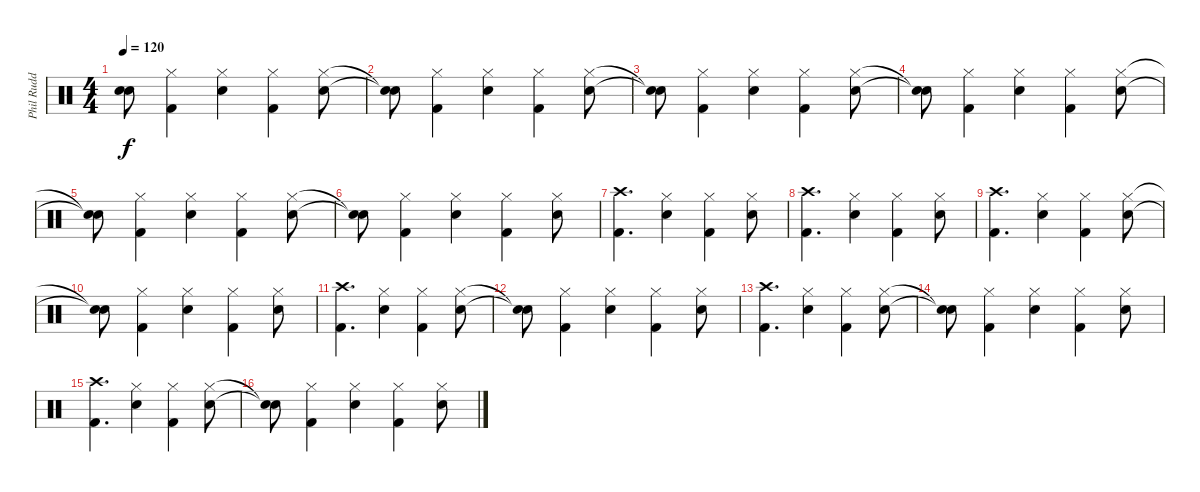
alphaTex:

\track ("Phil Rudd - Drums" "Phil Rudd ") {instrument percussion}
\staff {score}
\articulation defaults
\ts (4 4)
\tempo 120
\clef neutral
\ks c
("Snare (hit)"{t} "Snare (hit)"{t}).8{dy f} ("Hi-Hat (closed)" "Kick (hit) 2").4 ("Hi-Hat (closed)" "Snare (hit) 2").4 ("Hi-Hat (closed)" "Kick (hit) 2").4 ("Hi-Hat (closed)" "Snare (hit) 2").8 |
("Snare (hit)"{t} "Snare (hit)"{t}).8 ("Hi-Hat (closed)" "Kick (hit) 2").4 ("Hi-Hat (closed)" "Snare (hit) 2").4 ("Hi-Hat (closed)" "Kick (hit) 2").4 ("Hi-Hat (closed)" "Snare (hit) 2").8 |
("Snare (hit)"{t} "Snare (hit)"{t}).8 ("Hi-Hat (closed)" "Kick (hit) 2").4 ("Hi-Hat (closed)" "Snare (hit) 2").4 ("Hi-Hat (closed)" "Kick (hit) 2").4 ("Hi-Hat (closed)" "Snare (hit) 2").8 |
("Snare (hit)"{t} "Snare (hit)"{t}).8 ("Hi-Hat (closed)" "Kick (hit) 2").4 ("Hi-Hat (closed)" "Snare (hit) 2").4 ("Hi-Hat (closed)" "Kick (hit) 2").4 ("Hi-Hat (closed)" "Snare (hit) 2").8 |
("Snare (hit)"{t} "Snare (hit)"{t}).8 ("Hi-Hat (closed)" "Kick (hit) 2").4 ("Hi-Hat (closed)" "Snare (hit) 2").4 ("Hi-Hat (closed)" "Kick (hit) 2").4 ("Hi-Hat (closed)" "Snare (hit) 2").8 |
("Snare (hit)"{t} "Snare (hit)"{t}).8 ("Hi-Hat (closed)" "Kick (hit) 2").4 ("Hi-Hat (closed)" "Snare (hit) 2").4 ("Hi-Hat (closed)" "Kick (hit) 2").4 ("Hi-Hat (closed)" "Snare (hit) 2").8 |
("Crash high (hit)" "Kick (hit) 2").4{d} ("Hi-Hat (closed)" "Snare (hit) 2").4 ("Hi-Hat (closed)" "Kick (hit) 2").4 ("Hi-Hat (closed)" "Snare (hit) 2").8 |
("Crash high (hit)" "Kick (hit) 2").4{d} ("Hi-Hat (closed)" "Snare (hit) 2").4 ("Hi-Hat (closed)" "Kick (hit) 2").4 ("Hi-Hat (closed)" "Snare (hit) 2").8 |
("Crash high (hit)" "Kick (hit) 2").4{d} ("Hi-Hat (closed)" "Snare (hit) 2").4 ("Hi-Hat (closed)" "Kick (hit) 2").4 ("Hi-Hat (closed)" "Snare (hit) 2").8 |
("Snare (hit)"{t} "Snare (hit)"{t}).8 ("Hi-Hat (closed)" "Kick (hit) 2").4 ("Hi-Hat (closed)" "Snare (hit) 2").4 ("Hi-Hat (closed)" "Kick (hit) 2").4 ("Hi-Hat (closed)" "Snare (hit) 2").8 |
("Crash high (hit)" "Kick (hit) 2").4{d} ("Hi-Hat (closed)" "Snare (hit) 2").4 ("Hi-Hat (closed)" "Kick (hit) 2").4 ("Hi-Hat (closed)" "Snare (hit) 2").8 |
("Snare (hit)"{t} "Snare (hit)"{t}).8 ("Hi-Hat (closed)" "Kick (hit) 2").4 ("Hi-Hat (closed)" "Snare (hit) 2").4 ("Hi-Hat (closed)" "Kick (hit) 2").4 ("Hi-Hat (closed)" "Snare (hit) 2").8 |
("Crash high (hit)" "Kick (hit) 2").4{d} ("Hi-Hat (closed)" "Snare (hit) 2").4 ("Hi-Hat (closed)" "Kick (hit) 2").4 ("Hi-Hat (closed)" "Snare (hit) 2").8 |
("Snare (hit)"{t} "Snare (hit)"{t}).8 ("Hi-Hat (closed)" "Kick (hit) 2").4 ("Hi-Hat (closed)" "Snare (hit) 2").4 ("Hi-Hat (closed)" "Kick (hit) 2").4 ("Hi-Hat (closed)" "Snare (hit) 2").8 |
("Crash high (hit)" "Kick (hit) 2").4{d} ("Hi-Hat (closed)" "Snare (hit) 2").4 ("Hi-Hat (closed)" "Kick (hit) 2").4 ("Hi-Hat (closed)" "Snare (hit) 2").8 |
("Snare (hit)"{t} "Snare (hit)"{t}).8 ("Hi-Hat (closed)" "Kick (hit) 2").4 ("Hi-Hat (closed)" "Snare (hit) 2").4 ("Hi-Hat (closed)" "Kick (hit) 2").4 ("Hi-Hat (closed)" "Snare (hit) 2").8
